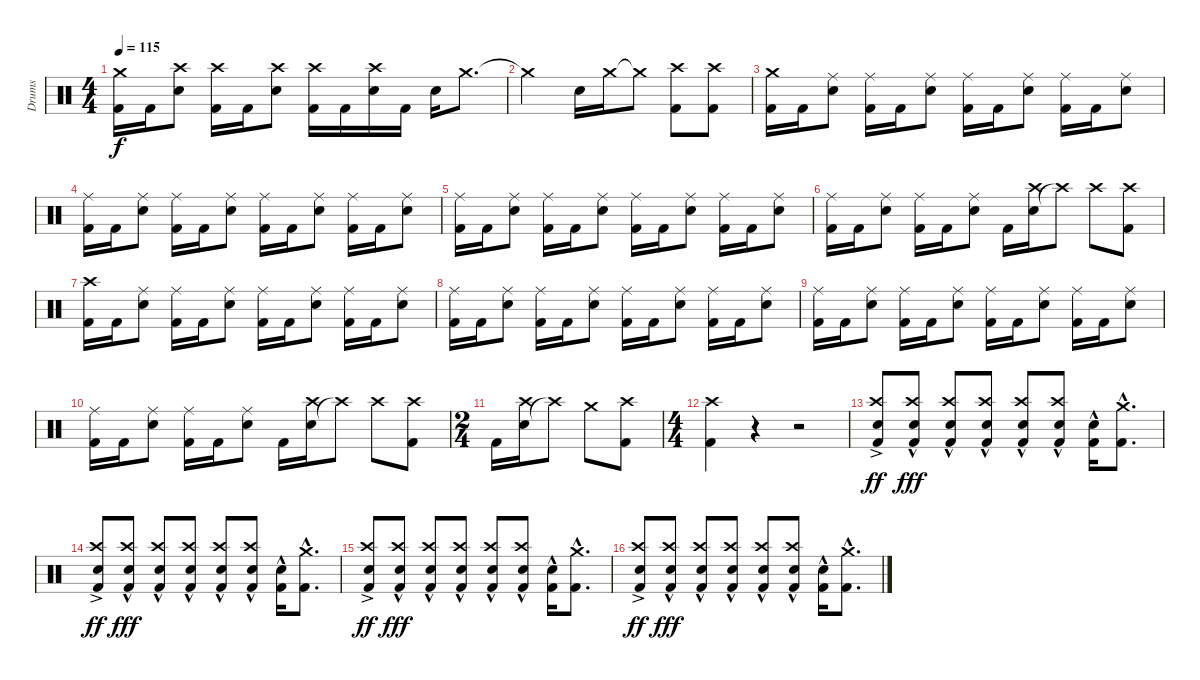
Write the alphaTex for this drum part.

\track ("Drums" "Drums") {instrument percussion}
\staff {score}
\articulation defaults
\ts (4 4)
\tempo 115
\clef neutral
\ks c
("Crash medium (hit)" "Kick (hit) 2").16{dy f} "Kick (hit) 2".16 ("Crash high (hit)" "Electric Snare (hit)").8 ("Crash high (hit)" "Kick (hit) 2").16 "Kick (hit) 2".16 ("Crash high (hit)" "Electric Snare (hit)").8 ("Crash high (hit)" "Kick (hit) 2").16 "Kick (hit) 2".16 ("Crash high (hit)" "Electric Snare (hit)").16 "Kick (hit) 2".16 "Electric Snare (hit)".16 "Crash medium (hit)".8{d} |
"Crash medium (hit)"{t}.2 "Electric Snare (hit)".16 "Crash medium (hit)".16 "Crash medium (hit)"{t}.8 ("Crash high (hit)" "Kick (hit) 2").8 ("Crash high (hit)" "Kick (hit) 2").8 |
("Crash medium (hit)" "Kick (hit) 2").16 "Kick (hit) 2".16 ("Ride (middle)" "Electric Snare (hit)").8 ("Ride (middle)" "Kick (hit) 2").16 "Kick (hit) 2".16 ("Ride (middle)" "Electric Snare (hit)").8 ("Ride (middle)" "Kick (hit) 2").16 "Kick (hit) 2".16 ("Ride (middle)" "Electric Snare (hit)").8 ("Ride (middle)" "Kick (hit) 2").16 "Kick (hit) 2".16 ("Ride (middle)" "Electric Snare (hit)").8 |
("Ride (middle)" "Kick (hit) 2").16 "Kick (hit) 2".16 ("Ride (middle)" "Electric Snare (hit)").8 ("Ride (middle)" "Kick (hit) 2").16 "Kick (hit) 2".16 ("Ride (middle)" "Electric Snare (hit)").8 ("Ride (middle)" "Kick (hit) 2").16 "Kick (hit) 2".16 ("Ride (middle)" "Electric Snare (hit)").8 ("Ride (middle)" "Kick (hit) 2").16 "Kick (hit) 2".16 ("Ride (middle)" "Electric Snare (hit)").8 |
("Ride (middle)" "Kick (hit) 2").16 "Kick (hit) 2".16 ("Ride (middle)" "Electric Snare (hit)").8 ("Ride (middle)" "Kick (hit) 2").16 "Kick (hit) 2".16 ("Ride (middle)" "Electric Snare (hit)").8 ("Ride (middle)" "Kick (hit) 2").16 "Kick (hit) 2".16 ("Ride (middle)" "Electric Snare (hit)").8 ("Ride (middle)" "Kick (hit) 2").16 "Kick (hit) 2".16 ("Ride (middle)" "Electric Snare (hit)").8 |
("Ride (middle)" "Kick (hit) 2").16 "Kick (hit) 2".16 ("Ride (middle)" "Electric Snare (hit)").8 ("Ride (middle)" "Kick (hit) 2").16 "Kick (hit) 2".16 ("Ride (middle)" "Electric Snare (hit)").8 "Kick (hit) 2".16 ("Electric Snare (hit)" "Crash high (hit)").16 "Crash high (hit)"{t}.8 "Crash high (hit)".8 ("Crash high (hit)" "Kick (hit) 2").8 |
("Crash high (hit)" "Kick (hit) 2").16 "Kick (hit) 2".16 ("Ride (middle)" "Electric Snare (hit)").8 ("Ride (middle)" "Kick (hit) 2").16 "Kick (hit) 2".16 ("Ride (middle)" "Electric Snare (hit)").8 ("Ride (middle)" "Kick (hit) 2").16 "Kick (hit) 2".16 ("Ride (middle)" "Electric Snare (hit)").8 ("Ride (middle)" "Kick (hit) 2").16 "Kick (hit) 2".16 ("Ride (middle)" "Electric Snare (hit)").8 |
("Ride (middle)" "Kick (hit) 2").16 "Kick (hit) 2".16 ("Ride (middle)" "Electric Snare (hit)").8 ("Ride (middle)" "Kick (hit) 2").16 "Kick (hit) 2".16 ("Ride (middle)" "Electric Snare (hit)").8 ("Ride (middle)" "Kick (hit) 2").16 "Kick (hit) 2".16 ("Ride (middle)" "Electric Snare (hit)").8 ("Ride (middle)" "Kick (hit) 2").16 "Kick (hit) 2".16 ("Ride (middle)" "Electric Snare (hit)").8 |
("Ride (middle)" "Kick (hit) 2").16 "Kick (hit) 2".16 ("Ride (middle)" "Electric Snare (hit)").8 ("Ride (middle)" "Kick (hit) 2").16 "Kick (hit) 2".16 ("Ride (middle)" "Electric Snare (hit)").8 ("Ride (middle)" "Kick (hit) 2").16 "Kick (hit) 2".16 ("Ride (middle)" "Electric Snare (hit)").8 ("Ride (middle)" "Kick (hit) 2").16 "Kick (hit) 2".16 ("Ride (middle)" "Electric Snare (hit)").8 |
("Ride (middle)" "Kick (hit) 2").16 "Kick (hit) 2".16 ("Ride (middle)" "Electric Snare (hit)").8 ("Ride (middle)" "Kick (hit) 2").16 "Kick (hit) 2".16 ("Ride (middle)" "Electric Snare (hit)").8 "Kick (hit) 2".16 ("Electric Snare (hit)" "Crash high (hit)").16 "Crash high (hit)"{t}.8 "Crash high (hit)".8 ("Crash high (hit)" "Kick (hit) 2").8 |
\ts (2 4)
"Kick (hit) 2".16 ("Electric Snare (hit)" "Crash high (hit)").16 "Crash high (hit)"{t}.8 "Crash medium (hit)".8 ("Crash high (hit)" "Kick (hit) 2").8 |
\ts (4 4)
("Crash high (hit)" "Kick (hit) 2").4 r.4 r.2 |
("Crash high (hit)" "Electric Snare (hit)" "Kick (hit) 2"{ac}).8{dy ff} ("Crash high (hit)" "Electric Snare (hit)" "Kick (hit) 2"{hac}).8{dy fff} ("Crash high (hit)" "Electric Snare (hit)" "Kick (hit) 2"{hac}).8 ("Crash high (hit)" "Electric Snare (hit)" "Kick (hit) 2"{hac}).8 ("Crash high (hit)" "Electric Snare (hit)" "Kick (hit) 2"{hac}).8 ("Crash high (hit)" "Electric Snare (hit)" "Kick (hit) 2"{hac}).8 ("Electric Snare (hit)" "Kick (hit) 2"{hac}).16 ("Crash medium (hit)" "Kick (hit) 2"{hac}).8{d} |
("Crash high (hit)" "Electric Snare (hit)" "Kick (hit) 2"{ac}).8{dy ff} ("Crash high (hit)" "Electric Snare (hit)" "Kick (hit) 2"{hac}).8{dy fff} ("Crash high (hit)" "Electric Snare (hit)" "Kick (hit) 2"{hac}).8 ("Crash high (hit)" "Electric Snare (hit)" "Kick (hit) 2"{hac}).8 ("Crash high (hit)" "Electric Snare (hit)" "Kick (hit) 2"{hac}).8 ("Crash high (hit)" "Electric Snare (hit)" "Kick (hit) 2"{hac}).8 ("Electric Snare (hit)" "Kick (hit) 2"{hac}).16 ("Crash medium (hit)" "Kick (hit) 2"{hac}).8{d} |
("Crash high (hit)" "Electric Snare (hit)" "Kick (hit) 2"{ac}).8{dy ff} ("Crash high (hit)" "Electric Snare (hit)" "Kick (hit) 2"{hac}).8{dy fff} ("Crash high (hit)" "Electric Snare (hit)" "Kick (hit) 2"{hac}).8 ("Crash high (hit)" "Electric Snare (hit)" "Kick (hit) 2"{hac}).8 ("Crash high (hit)" "Electric Snare (hit)" "Kick (hit) 2"{hac}).8 ("Crash high (hit)" "Electric Snare (hit)" "Kick (hit) 2"{hac}).8 ("Electric Snare (hit)" "Kick (hit) 2"{hac}).16 ("Crash medium (hit)" "Kick (hit) 2"{hac}).8{d} |
("Crash high (hit)" "Electric Snare (hit)" "Kick (hit) 2"{ac}).8{dy ff} ("Crash high (hit)" "Electric Snare (hit)" "Kick (hit) 2"{hac}).8{dy fff} ("Crash high (hit)" "Electric Snare (hit)" "Kick (hit) 2"{hac}).8 ("Crash high (hit)" "Electric Snare (hit)" "Kick (hit) 2"{hac}).8 ("Crash high (hit)" "Electric Snare (hit)" "Kick (hit) 2"{hac}).8 ("Crash high (hit)" "Electric Snare (hit)" "Kick (hit) 2"{hac}).8 ("Electric Snare (hit)" "Kick (hit) 2"{hac}).16 ("Crash medium (hit)" "Kick (hit) 2"{hac}).8{d}
